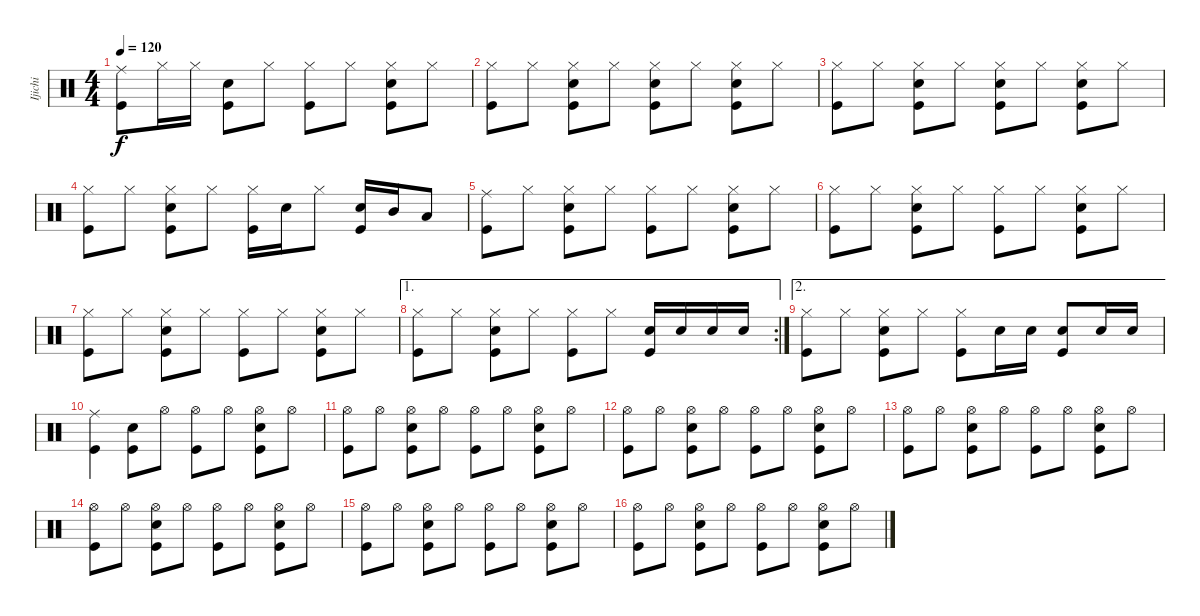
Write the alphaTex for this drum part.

\track ("Ijichi" "Ijichi") {instrument percussion}
\staff {score}
\articulation defaults
\ts (4 4)
\tempo 120
\clef neutral
\ks c
("Ride (middle)" "Kick (hit)").8{dy f} "Hi-Hat (closed)".16 "Hi-Hat (closed)".16 ("Snare (hit) 2" "Kick (hit)").8 "Hi-Hat (closed)".8 ("Hi-Hat (closed)" "Kick (hit)").8 "Hi-Hat (closed)".8 ("Hi-Hat (closed)" "Snare (hit) 2" "Kick (hit)").8 "Hi-Hat (closed)".8 |
("Hi-Hat (closed)" "Kick (hit)").8 "Hi-Hat (closed)".8 ("Hi-Hat (closed)" "Snare (hit) 2" "Kick (hit)").8 "Hi-Hat (closed)".8 ("Hi-Hat (closed)" "Snare (hit) 2" "Kick (hit)").8 "Hi-Hat (closed)".8 ("Hi-Hat (closed)" "Snare (hit) 2" "Kick (hit)").8 "Hi-Hat (closed)".8 |
("Hi-Hat (closed)" "Kick (hit)").8 "Hi-Hat (closed)".8 ("Hi-Hat (closed)" "Snare (hit) 2" "Kick (hit)").8 "Hi-Hat (closed)".8 ("Hi-Hat (closed)" "Snare (hit) 2" "Kick (hit)").8 "Hi-Hat (closed)".8 ("Hi-Hat (closed)" "Snare (hit) 2" "Kick (hit)").8 "Hi-Hat (closed)".8 |
("Hi-Hat (closed)" "Kick (hit)").8 "Hi-Hat (closed)".8 ("Hi-Hat (closed)" "Snare (hit) 2" "Kick (hit)").8 "Hi-Hat (closed)".8 ("Hi-Hat (closed)" "Kick (hit)").16 "Snare (hit) 2".16 "Hi-Hat (closed)".8 ("Snare (hit) 2" "Kick (hit)").16 "Mid Tom (hit)".16 "Low Tom (hit)".8 |
("Ride (middle)" "Kick (hit)").8 "Hi-Hat (closed)".8 ("Hi-Hat (closed)" "Snare (hit) 2" "Kick (hit)").8 "Hi-Hat (closed)".8 ("Hi-Hat (closed)" "Kick (hit)").8 "Hi-Hat (closed)".8 ("Hi-Hat (closed)" "Snare (hit) 2" "Kick (hit)").8 "Hi-Hat (closed)".8 |
("Hi-Hat (closed)" "Kick (hit)").8 "Hi-Hat (closed)".8 ("Hi-Hat (closed)" "Snare (hit) 2" "Kick (hit)").8 "Hi-Hat (closed)".8 ("Hi-Hat (closed)" "Kick (hit)").8 "Hi-Hat (closed)".8 ("Hi-Hat (closed)" "Snare (hit) 2" "Kick (hit)").8 "Hi-Hat (closed)".8 |
("Hi-Hat (closed)" "Kick (hit)").8 "Hi-Hat (closed)".8 ("Hi-Hat (closed)" "Snare (hit) 2" "Kick (hit)").8 "Hi-Hat (closed)".8 ("Hi-Hat (closed)" "Kick (hit)").8 "Hi-Hat (closed)".8 ("Hi-Hat (closed)" "Snare (hit) 2" "Kick (hit)").8 "Hi-Hat (closed)".8 |
\ae 1
\rc 2
("Hi-Hat (closed)" "Kick (hit)").8 "Hi-Hat (closed)".8 ("Hi-Hat (closed)" "Snare (hit) 2" "Kick (hit)").8 "Hi-Hat (closed)".8 ("Hi-Hat (closed)" "Kick (hit)").8 "Hi-Hat (closed)".8 ("Snare (hit) 2" "Kick (hit)").16 "Snare (hit) 2".16 "Snare (hit) 2".16 "Snare (hit) 2".16 |
\ae 2
("Hi-Hat (closed)" "Kick (hit)").8 "Hi-Hat (closed)".8 ("Hi-Hat (closed)" "Snare (hit) 2" "Kick (hit)").8 "Hi-Hat (closed)".8 ("Hi-Hat (closed)" "Kick (hit)").8 "Snare (hit) 2".16 "Snare (hit) 2".16 ("Snare (hit) 2" "Kick (hit)").8 "Snare (hit) 2".16 "Snare (hit) 2".16 |
("Ride (middle)" "Kick (hit)").4 ("Snare (hit) 2" "Kick (hit)").8 "Hi-Hat (open)".8 ("Hi-Hat (open)" "Kick (hit)").8 "Hi-Hat (open)".8 ("Hi-Hat (open)" "Snare (hit) 2" "Kick (hit)").8 "Hi-Hat (open)".8 |
("Hi-Hat (open)" "Kick (hit)").8 "Hi-Hat (open)".8 ("Hi-Hat (open)" "Snare (hit) 2" "Kick (hit)").8 "Hi-Hat (open)".8 ("Hi-Hat (open)" "Kick (hit)").8 "Hi-Hat (open)".8 ("Hi-Hat (open)" "Snare (hit) 2" "Kick (hit)").8 "Hi-Hat (open)".8 |
("Hi-Hat (open)" "Kick (hit)").8 "Hi-Hat (open)".8 ("Hi-Hat (open)" "Snare (hit) 2" "Kick (hit)").8 "Hi-Hat (open)".8 ("Hi-Hat (open)" "Kick (hit)").8 "Hi-Hat (open)".8 ("Hi-Hat (open)" "Snare (hit) 2" "Kick (hit)").8 "Hi-Hat (open)".8 |
("Hi-Hat (open)" "Kick (hit)").8 "Hi-Hat (open)".8 ("Hi-Hat (open)" "Snare (hit) 2" "Kick (hit)").8 "Hi-Hat (open)".8 ("Hi-Hat (open)" "Kick (hit)").8 "Hi-Hat (open)".8 ("Hi-Hat (open)" "Snare (hit) 2" "Kick (hit)").8 "Hi-Hat (open)".8 |
("Hi-Hat (open)" "Kick (hit)").8 "Hi-Hat (open)".8 ("Hi-Hat (open)" "Snare (hit) 2" "Kick (hit)").8 "Hi-Hat (open)".8 ("Hi-Hat (open)" "Kick (hit)").8 "Hi-Hat (open)".8 ("Hi-Hat (open)" "Snare (hit) 2" "Kick (hit)").8 "Hi-Hat (open)".8 |
("Hi-Hat (open)" "Kick (hit)").8 "Hi-Hat (open)".8 ("Hi-Hat (open)" "Snare (hit) 2" "Kick (hit)").8 "Hi-Hat (open)".8 ("Hi-Hat (open)" "Kick (hit)").8 "Hi-Hat (open)".8 ("Hi-Hat (open)" "Snare (hit) 2" "Kick (hit)").8 "Hi-Hat (open)".8 |
("Hi-Hat (open)" "Kick (hit)").8 "Hi-Hat (open)".8 ("Hi-Hat (open)" "Snare (hit) 2" "Kick (hit)").8 "Hi-Hat (open)".8 ("Hi-Hat (open)" "Kick (hit)").8 "Hi-Hat (open)".8 ("Hi-Hat (open)" "Snare (hit) 2" "Kick (hit)").8 "Hi-Hat (open)".8
